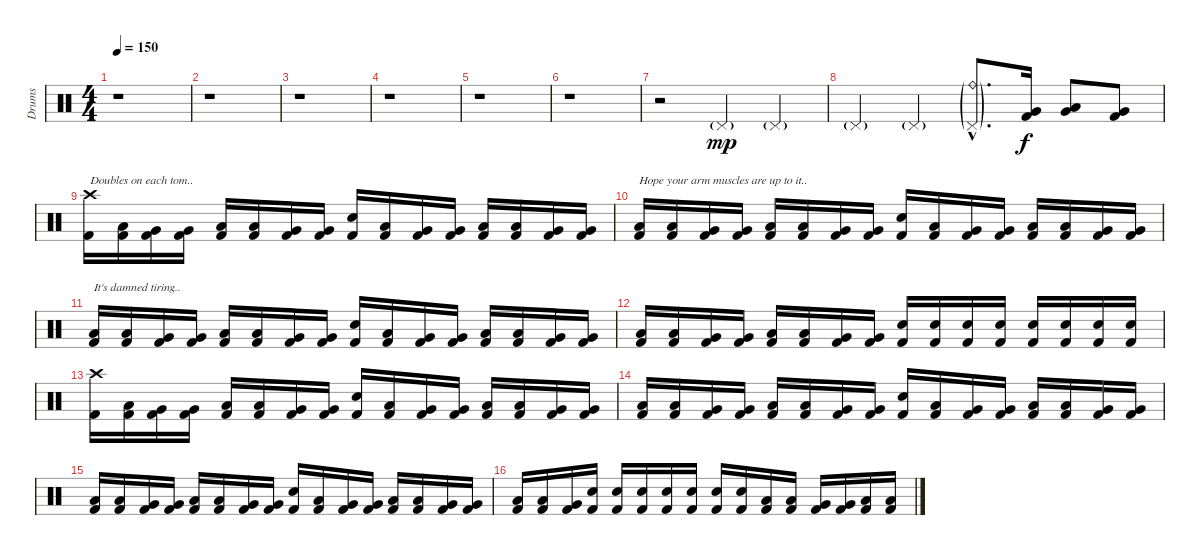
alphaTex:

\track ("Drums" "Drums") {instrument percussion}
\staff {score}
\articulation defaults
\ts (4 4)
\tempo 150
\clef neutral
\ks c
r.1{dy mp} |
r.1 |
r.1 |
r.1 |
r.1 |
r.1 |
r.2 "Pedal Hi-Hat (hit)"{g}.4 "Pedal Hi-Hat (hit)"{g}.4 |
"Pedal Hi-Hat (hit)"{g}.4 "Pedal Hi-Hat (hit)"{g}.4 ("Ride (bell)"{g hac} "Pedal Hi-Hat (hit)"{g hac}).8{d} ("Very Low Tom (hit)" "Kick (hit) 2").16{dy f} ("Low Tom (hit)" "Very Low Tom (hit)").8 ("Very Low Tom (hit)" "Kick (hit) 2").8 |
("Crash high (hit)" "Kick (hit) 2").16{txt "Doubles on each tom.."} ("Low Tom (hit)" "Kick (hit) 2").16 ("Very Low Tom (hit)" "Kick (hit) 2").16 ("Very Low Tom (hit)" "Kick (hit) 2").16 ("Low Tom (hit)" "Kick (hit) 2").16 ("Low Tom (hit)" "Kick (hit) 2").16 ("Very Low Tom (hit)" "Kick (hit) 2").16 ("Very Low Tom (hit)" "Kick (hit) 2").16 ("Snare (hit) 2" "Kick (hit) 2").16 ("Low Tom (hit)" "Kick (hit) 2").16 ("Very Low Tom (hit)" "Kick (hit) 2").16 ("Very Low Tom (hit)" "Kick (hit) 2").16 ("Low Tom (hit)" "Kick (hit) 2").16 ("Low Tom (hit)" "Kick (hit) 2").16 ("Very Low Tom (hit)" "Kick (hit) 2").16 ("Very Low Tom (hit)" "Kick (hit) 2").16 |
("Low Tom (hit)" "Kick (hit) 2").16{txt "Hope your arm muscles are up to it.."} ("Low Tom (hit)" "Kick (hit) 2").16 ("Very Low Tom (hit)" "Kick (hit) 2").16 ("Very Low Tom (hit)" "Kick (hit) 2").16 ("Low Tom (hit)" "Kick (hit) 2").16 ("Low Tom (hit)" "Kick (hit) 2").16 ("Very Low Tom (hit)" "Kick (hit) 2").16 ("Very Low Tom (hit)" "Kick (hit) 2").16 ("Snare (hit) 2" "Kick (hit) 2").16 ("Low Tom (hit)" "Kick (hit) 2").16 ("Very Low Tom (hit)" "Kick (hit) 2").16 ("Very Low Tom (hit)" "Kick (hit) 2").16 ("Low Tom (hit)" "Kick (hit) 2").16 ("Low Tom (hit)" "Kick (hit) 2").16 ("Very Low Tom (hit)" "Kick (hit) 2").16 ("Very Low Tom (hit)" "Kick (hit) 2").16 |
("Low Tom (hit)" "Kick (hit) 2").16{txt "It's damned tiring.."} ("Low Tom (hit)" "Kick (hit) 2").16 ("Very Low Tom (hit)" "Kick (hit) 2").16 ("Very Low Tom (hit)" "Kick (hit) 2").16 ("Low Tom (hit)" "Kick (hit) 2").16 ("Low Tom (hit)" "Kick (hit) 2").16 ("Very Low Tom (hit)" "Kick (hit) 2").16 ("Very Low Tom (hit)" "Kick (hit) 2").16 ("Snare (hit) 2" "Kick (hit) 2").16 ("Low Tom (hit)" "Kick (hit) 2").16 ("Very Low Tom (hit)" "Kick (hit) 2").16 ("Very Low Tom (hit)" "Kick (hit) 2").16 ("Low Tom (hit)" "Kick (hit) 2").16 ("Low Tom (hit)" "Kick (hit) 2").16 ("Very Low Tom (hit)" "Kick (hit) 2").16 ("Very Low Tom (hit)" "Kick (hit) 2").16 |
("Low Tom (hit)" "Kick (hit) 2").16 ("Low Tom (hit)" "Kick (hit) 2").16 ("Very Low Tom (hit)" "Kick (hit) 2").16 ("Very Low Tom (hit)" "Kick (hit) 2").16 ("Low Tom (hit)" "Kick (hit) 2").16 ("Low Tom (hit)" "Kick (hit) 2").16 ("Very Low Tom (hit)" "Kick (hit) 2").16 ("Very Low Tom (hit)" "Kick (hit) 2").16 ("Snare (hit) 2" "Kick (hit) 2").16 ("Snare (hit) 2" "Kick (hit) 2").16 ("Snare (hit) 2" "Kick (hit) 2").16 ("Snare (hit) 2" "Kick (hit) 2").16 ("Snare (hit) 2" "Kick (hit) 2").16 ("Snare (hit) 2" "Kick (hit) 2").16 ("Snare (hit) 2" "Kick (hit) 2").16 ("Snare (hit) 2" "Kick (hit) 2").16 |
("Crash high (hit)" "Kick (hit) 2").16 ("Low Tom (hit)" "Kick (hit) 2").16 ("Very Low Tom (hit)" "Kick (hit) 2").16 ("Very Low Tom (hit)" "Kick (hit) 2").16 ("Low Tom (hit)" "Kick (hit) 2").16 ("Low Tom (hit)" "Kick (hit) 2").16 ("Very Low Tom (hit)" "Kick (hit) 2").16 ("Very Low Tom (hit)" "Kick (hit) 2").16 ("Snare (hit) 2" "Kick (hit) 2").16 ("Low Tom (hit)" "Kick (hit) 2").16 ("Very Low Tom (hit)" "Kick (hit) 2").16 ("Very Low Tom (hit)" "Kick (hit) 2").16 ("Low Tom (hit)" "Kick (hit) 2").16 ("Low Tom (hit)" "Kick (hit) 2").16 ("Very Low Tom (hit)" "Kick (hit) 2").16 ("Very Low Tom (hit)" "Kick (hit) 2").16 |
("Low Tom (hit)" "Kick (hit) 2").16 ("Low Tom (hit)" "Kick (hit) 2").16 ("Very Low Tom (hit)" "Kick (hit) 2").16 ("Very Low Tom (hit)" "Kick (hit) 2").16 ("Low Tom (hit)" "Kick (hit) 2").16 ("Low Tom (hit)" "Kick (hit) 2").16 ("Very Low Tom (hit)" "Kick (hit) 2").16 ("Very Low Tom (hit)" "Kick (hit) 2").16 ("Snare (hit) 2" "Kick (hit) 2").16 ("Low Tom (hit)" "Kick (hit) 2").16 ("Very Low Tom (hit)" "Kick (hit) 2").16 ("Very Low Tom (hit)" "Kick (hit) 2").16 ("Low Tom (hit)" "Kick (hit) 2").16 ("Low Tom (hit)" "Kick (hit) 2").16 ("Very Low Tom (hit)" "Kick (hit) 2").16 ("Very Low Tom (hit)" "Kick (hit) 2").16 |
("Low Tom (hit)" "Kick (hit) 2").16 ("Low Tom (hit)" "Kick (hit) 2").16 ("Very Low Tom (hit)" "Kick (hit) 2").16 ("Very Low Tom (hit)" "Kick (hit) 2").16 ("Low Tom (hit)" "Kick (hit) 2").16 ("Low Tom (hit)" "Kick (hit) 2").16 ("Very Low Tom (hit)" "Kick (hit) 2").16 ("Very Low Tom (hit)" "Kick (hit) 2").16 ("Snare (hit) 2" "Kick (hit) 2").16 ("Low Tom (hit)" "Kick (hit) 2").16 ("Very Low Tom (hit)" "Kick (hit) 2").16 ("Very Low Tom (hit)" "Kick (hit) 2").16 ("Low Tom (hit)" "Kick (hit) 2").16 ("Low Tom (hit)" "Kick (hit) 2").16 ("Very Low Tom (hit)" "Kick (hit) 2").16 ("Very Low Tom (hit)" "Kick (hit) 2").16 |
("Low Tom (hit)" "Kick (hit) 2").16 ("Low Tom (hit)" "Kick (hit) 2").16 ("Very Low Tom (hit)" "Kick (hit) 2").16 ("Snare (hit) 2" "Kick (hit) 2").16 ("Snare (hit) 2" "Kick (hit) 2").16 ("Snare (hit) 2" "Kick (hit) 2").16 ("Snare (hit) 2" "Kick (hit) 2").16 ("Snare (hit) 2" "Kick (hit) 2").16 ("Snare (hit) 2" "Kick (hit) 2").16 ("Snare (hit) 2" "Kick (hit) 2").16 ("Low Tom (hit)" "Kick (hit) 2").16 ("Low Tom (hit)" "Kick (hit) 2").16 ("Very Low Tom (hit)" "Kick (hit) 2").16 ("Very Low Tom (hit)" "Kick (hit) 2").16 ("Low Floor Tom (hit)" "Kick (hit) 2").16 ("Low Floor Tom (hit)" "Kick (hit) 2").16
